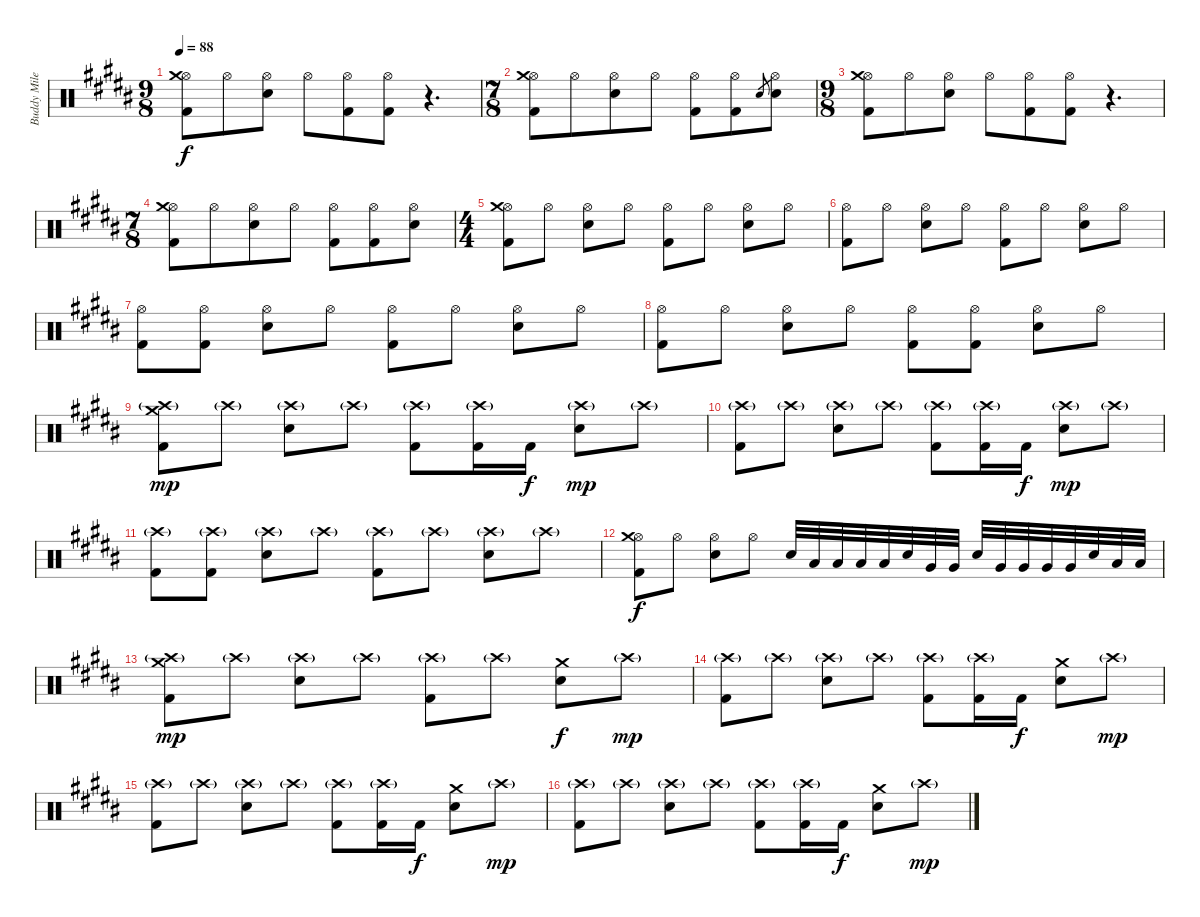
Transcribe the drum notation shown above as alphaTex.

\track ("Buddy Miles" "Buddy Mile") {instrument percussion}
\staff {score}
\articulation defaults
\ts (9 8)
\tempo 88
\clef neutral
\ks b
("Hi-Hat (open)" "Kick (hit) 2" "Crash medium (hit)").8{dy f} "Hi-Hat (open)".8 ("Hi-Hat (open)" "Electric Snare (hit)").8 "Hi-Hat (open)".8 ("Hi-Hat (open)" "Kick (hit) 2").8 ("Hi-Hat (open)" "Kick (hit) 2").8 r.4{d} |
\ts (7 8)
("Hi-Hat (open)" "Kick (hit) 2" "Crash medium (hit)").8 "Hi-Hat (open)".8 ("Hi-Hat (open)" "Electric Snare (hit)").8 "Hi-Hat (open)".8 ("Hi-Hat (open)" "Kick (hit) 2").8 ("Hi-Hat (open)" "Kick (hit) 2").8 "Electric Snare (hit)".8{gr} ("Hi-Hat (open)" "Electric Snare (hit)").8 |
\ts (9 8)
("Hi-Hat (open)" "Kick (hit) 2" "Crash medium (hit)").8 "Hi-Hat (open)".8 ("Hi-Hat (open)" "Electric Snare (hit)").8 "Hi-Hat (open)".8 ("Hi-Hat (open)" "Kick (hit) 2").8 ("Hi-Hat (open)" "Kick (hit) 2").8 r.4{d} |
\ts (7 8)
("Hi-Hat (open)" "Kick (hit) 2" "Crash medium (hit)").8 "Hi-Hat (open)".8 ("Hi-Hat (open)" "Electric Snare (hit)").8 "Hi-Hat (open)".8 ("Hi-Hat (open)" "Kick (hit) 2").8 ("Hi-Hat (open)" "Kick (hit) 2").8 ("Hi-Hat (open)" "Electric Snare (hit)").8 |
\ts (4 4)
("Hi-Hat (open)" "Kick (hit) 2" "Crash medium (hit)").8 "Hi-Hat (open)".8 ("Hi-Hat (open)" "Electric Snare (hit)").8 "Hi-Hat (open)".8 ("Hi-Hat (open)" "Kick (hit) 2").8 "Hi-Hat (open)".8 ("Hi-Hat (open)" "Electric Snare (hit)").8 "Hi-Hat (open)".8 |
("Hi-Hat (open)" "Kick (hit) 2").8 "Hi-Hat (open)".8 ("Hi-Hat (open)" "Electric Snare (hit)").8 "Hi-Hat (open)".8 ("Hi-Hat (open)" "Kick (hit) 2").8 "Hi-Hat (open)".8 ("Hi-Hat (open)" "Electric Snare (hit)").8 "Hi-Hat (open)".8 |
("Hi-Hat (open)" "Kick (hit) 2").8 ("Hi-Hat (open)" "Kick (hit) 2").8 ("Hi-Hat (open)" "Electric Snare (hit)").8 "Hi-Hat (open)".8 ("Hi-Hat (open)" "Kick (hit) 2").8 "Hi-Hat (open)".8 ("Hi-Hat (open)" "Electric Snare (hit)").8 "Hi-Hat (open)".8 |
("Hi-Hat (open)" "Kick (hit) 2").8 "Hi-Hat (open)".8 ("Hi-Hat (open)" "Electric Snare (hit)").8 "Hi-Hat (open)".8 ("Hi-Hat (open)" "Kick (hit) 2").8 ("Hi-Hat (open)" "Kick (hit) 2").8 ("Hi-Hat (open)" "Electric Snare (hit)").8 "Hi-Hat (open)".8 |
("Crash high (hit)"{g} "Kick (hit) 2" "Crash medium (hit)").8{dy mp} "Crash high (hit)"{g}.8 ("Crash high (hit)"{g} "Electric Snare (hit)").8 "Crash high (hit)"{g}.8 ("Crash high (hit)"{g} "Kick (hit) 2").8 ("Crash high (hit)"{g} "Kick (hit) 2").16 "Kick (hit) 2".16{dy f} ("Crash high (hit)"{g} "Electric Snare (hit)").8{dy mp} "Crash high (hit)"{g}.8 |
("Crash high (hit)"{g} "Kick (hit) 2").8 "Crash high (hit)"{g}.8 ("Crash high (hit)"{g} "Electric Snare (hit)").8 "Crash high (hit)"{g}.8 ("Crash high (hit)"{g} "Kick (hit) 2").8 ("Crash high (hit)"{g} "Kick (hit) 2").16 "Kick (hit) 2".16{dy f} ("Crash high (hit)"{g} "Electric Snare (hit)").8{dy mp} "Crash high (hit)"{g}.8 |
("Crash high (hit)"{g} "Kick (hit) 2").8 ("Crash high (hit)"{g} "Kick (hit) 2").8 ("Crash high (hit)"{g} "Electric Snare (hit)").8 "Crash high (hit)"{g}.8 ("Crash high (hit)"{g} "Kick (hit) 2").8 "Crash high (hit)"{g}.8 ("Crash high (hit)"{g} "Electric Snare (hit)").8 "Crash high (hit)"{g}.8 |
("Hi-Hat (open)" "Kick (hit) 2" "Crash medium (hit)").8{dy f} "Hi-Hat (open)".8 ("Hi-Hat (open)" "Electric Snare (hit)").8 "Hi-Hat (open)".8 "Electric Snare (hit)".32 "Low Tom (hit)".32 "Low Tom (hit)".32 "Low Tom (hit)".32 "Low Tom (hit)".32 "Electric Snare (hit)".32 "Very Low Tom (hit)".32 "Very Low Tom (hit)".32 "Electric Snare (hit)".32 "Very Low Tom (hit)".32 "Very Low Tom (hit)".32 "Very Low Tom (hit)".32 "Very Low Tom (hit)".32 "Electric Snare (hit)".32 "Low Floor Tom (hit)".32 "Low Floor Tom (hit)".32 |
("Crash high (hit)"{g} "Kick (hit) 2" "Crash medium (hit)").8{dy mp} "Crash high (hit)"{g}.8 ("Crash high (hit)"{g} "Electric Snare (hit)").8 "Crash high (hit)"{g}.8 ("Crash high (hit)"{g} "Kick (hit) 2").8 "Crash high (hit)"{g}.8 ("Electric Snare (hit)" "Crash medium (hit)").8{dy f} "Crash high (hit)"{g}.8{dy mp} |
("Crash high (hit)"{g} "Kick (hit) 2").8 "Crash high (hit)"{g}.8 ("Crash high (hit)"{g} "Electric Snare (hit)").8 "Crash high (hit)"{g}.8 ("Crash high (hit)"{g} "Kick (hit) 2").8 ("Crash high (hit)"{g} "Kick (hit) 2").16 "Kick (hit) 2".16{dy f} ("Electric Snare (hit)" "Crash medium (hit)").8 "Crash high (hit)"{g}.8{dy mp} |
("Crash high (hit)"{g} "Kick (hit) 2").8 "Crash high (hit)"{g}.8 ("Crash high (hit)"{g} "Electric Snare (hit)").8 "Crash high (hit)"{g}.8 ("Crash high (hit)"{g} "Kick (hit) 2").8 ("Crash high (hit)"{g} "Kick (hit) 2").16 "Kick (hit) 2".16{dy f} ("Electric Snare (hit)" "Crash medium (hit)").8 "Crash high (hit)"{g}.8{dy mp} |
("Crash high (hit)"{g} "Kick (hit) 2").8 "Crash high (hit)"{g}.8 ("Crash high (hit)"{g} "Electric Snare (hit)").8 "Crash high (hit)"{g}.8 ("Crash high (hit)"{g} "Kick (hit) 2").8 ("Crash high (hit)"{g} "Kick (hit) 2").16 "Kick (hit) 2".16{dy f} ("Electric Snare (hit)" "Crash medium (hit)").8 "Crash high (hit)"{g}.8{dy mp}
